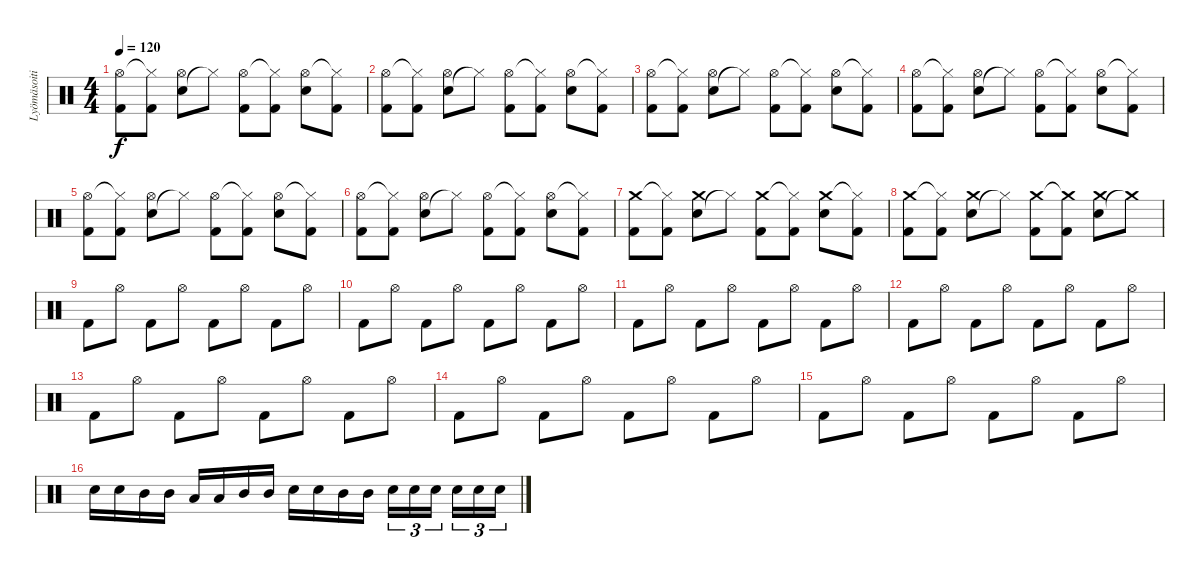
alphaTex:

\track ("Lyömäsoitin" "Lyömäsoiti") {instrument percussion}
\staff {score}
\articulation defaults
\ts (4 4)
\tempo 120
\clef neutral
\ks c
("Kick (hit) 2" "Hi-Hat (open)").8{dy f} ("Kick (hit) 2" "Hi-Hat (closed)"{t}).8 ("Electric Snare (hit)" "Hi-Hat (open)").8 "Hi-Hat (closed)"{t}.8 ("Kick (hit) 2" "Hi-Hat (open)").8 ("Kick (hit) 2" "Hi-Hat (closed)"{t}).8 ("Electric Snare (hit)" "Hi-Hat (open)").8 ("Kick (hit) 2" "Hi-Hat (closed)"{t}).8 |
("Kick (hit) 2" "Hi-Hat (open)").8 ("Kick (hit) 2" "Hi-Hat (closed)"{t}).8 ("Electric Snare (hit)" "Hi-Hat (open)").8 "Hi-Hat (closed)"{t}.8 ("Kick (hit) 2" "Hi-Hat (open)").8 ("Kick (hit) 2" "Hi-Hat (closed)"{t}).8 ("Electric Snare (hit)" "Hi-Hat (open)").8 ("Kick (hit) 2" "Hi-Hat (closed)"{t}).8 |
("Kick (hit) 2" "Hi-Hat (open)").8 ("Kick (hit) 2" "Hi-Hat (closed)"{t}).8 ("Electric Snare (hit)" "Hi-Hat (open)").8 "Hi-Hat (closed)"{t}.8 ("Kick (hit) 2" "Hi-Hat (open)").8 ("Kick (hit) 2" "Hi-Hat (closed)"{t}).8 ("Electric Snare (hit)" "Hi-Hat (open)").8 ("Kick (hit) 2" "Hi-Hat (closed)"{t}).8 |
("Kick (hit) 2" "Hi-Hat (open)").8 ("Kick (hit) 2" "Hi-Hat (closed)"{t}).8 ("Electric Snare (hit)" "Hi-Hat (open)").8 "Hi-Hat (closed)"{t}.8 ("Kick (hit) 2" "Hi-Hat (open)").8 ("Kick (hit) 2" "Hi-Hat (closed)"{t}).8 ("Electric Snare (hit)" "Hi-Hat (open)").8 ("Kick (hit) 2" "Hi-Hat (closed)"{t}).8 |
("Kick (hit) 2" "Hi-Hat (open)").8 ("Kick (hit) 2" "Hi-Hat (closed)"{t}).8 ("Electric Snare (hit)" "Hi-Hat (open)").8 "Hi-Hat (closed)"{t}.8 ("Kick (hit) 2" "Hi-Hat (open)").8 ("Kick (hit) 2" "Hi-Hat (closed)"{t}).8 ("Electric Snare (hit)" "Hi-Hat (open)").8 ("Kick (hit) 2" "Hi-Hat (closed)"{t}).8 |
("Kick (hit) 2" "Hi-Hat (open)").8 ("Kick (hit) 2" "Hi-Hat (closed)"{t}).8 ("Electric Snare (hit)" "Hi-Hat (open)").8 "Hi-Hat (closed)"{t}.8 ("Kick (hit) 2" "Hi-Hat (open)").8 ("Kick (hit) 2" "Hi-Hat (closed)"{t}).8 ("Electric Snare (hit)" "Hi-Hat (open)").8 ("Kick (hit) 2" "Hi-Hat (closed)"{t}).8 |
("Kick (hit) 2" "Crash medium (hit)").8 ("Kick (hit) 2" "Hi-Hat (closed)"{t}).8 ("Electric Snare (hit)" "Crash medium (hit)").8 "Hi-Hat (closed)"{t}.8 ("Kick (hit) 2" "Crash medium (hit)").8 ("Kick (hit) 2" "Hi-Hat (closed)"{t}).8 ("Electric Snare (hit)" "Crash medium (hit)").8 ("Kick (hit) 2" "Hi-Hat (closed)"{t}).8 |
("Kick (hit) 2" "Crash medium (hit)").8 ("Kick (hit) 2" "Hi-Hat (closed)"{t}).8 ("Electric Snare (hit)" "Crash medium (hit)").8 "Hi-Hat (closed)"{t}.8 ("Kick (hit) 2" "Crash medium (hit)").8 ("Kick (hit) 2" "Crash medium (hit)"{t}).8 ("Electric Snare (hit)" "Crash medium (hit)").8 "Crash medium (hit)"{t}.8 |
"Kick (hit) 2".8 "Hi-Hat (open)".8 "Kick (hit) 2".8 "Hi-Hat (open)".8 "Kick (hit) 2".8 "Hi-Hat (open)".8 "Kick (hit) 2".8 "Hi-Hat (open)".8 |
"Kick (hit) 2".8 "Hi-Hat (open)".8 "Kick (hit) 2".8 "Hi-Hat (open)".8 "Kick (hit) 2".8 "Hi-Hat (open)".8 "Kick (hit) 2".8 "Hi-Hat (open)".8 |
"Kick (hit) 2".8 "Hi-Hat (open)".8 "Kick (hit) 2".8 "Hi-Hat (open)".8 "Kick (hit) 2".8 "Hi-Hat (open)".8 "Kick (hit) 2".8 "Hi-Hat (open)".8 |
"Kick (hit) 2".8 "Hi-Hat (open)".8 "Kick (hit) 2".8 "Hi-Hat (open)".8 "Kick (hit) 2".8 "Hi-Hat (open)".8 "Kick (hit) 2".8 "Hi-Hat (open)".8 |
"Kick (hit) 2".8 "Hi-Hat (open)".8 "Kick (hit) 2".8 "Hi-Hat (open)".8 "Kick (hit) 2".8 "Hi-Hat (open)".8 "Kick (hit) 2".8 "Hi-Hat (open)".8 |
"Kick (hit) 2".8 "Hi-Hat (open)".8 "Kick (hit) 2".8 "Hi-Hat (open)".8 "Kick (hit) 2".8 "Hi-Hat (open)".8 "Kick (hit) 2".8 "Hi-Hat (open)".8 |
"Kick (hit) 2".8 "Hi-Hat (open)".8 "Kick (hit) 2".8 "Hi-Hat (open)".8 "Kick (hit) 2".8 "Hi-Hat (open)".8 "Kick (hit) 2".8 "Hi-Hat (open)".8 |
"Electric Snare (hit)".16 "Electric Snare (hit)".16 "Mid Tom (hit)".16 "Mid Tom (hit)".16 "Low Tom (hit)".16 "Low Tom (hit)".16 "Mid Tom (hit)".16 "Mid Tom (hit)".16 "Electric Snare (hit)".16 "Electric Snare (hit)".16 "Mid Tom (hit)".16 "Mid Tom (hit)".16 "Electric Snare (hit)".16{tu (3 2)} "Electric Snare (hit)".16{tu (3 2)} "Electric Snare (hit)".16{tu (3 2)} "Electric Snare (hit)".16{tu (3 2)} "Electric Snare (hit)".16{tu (3 2)} "Electric Snare (hit)".16{tu (3 2)}
